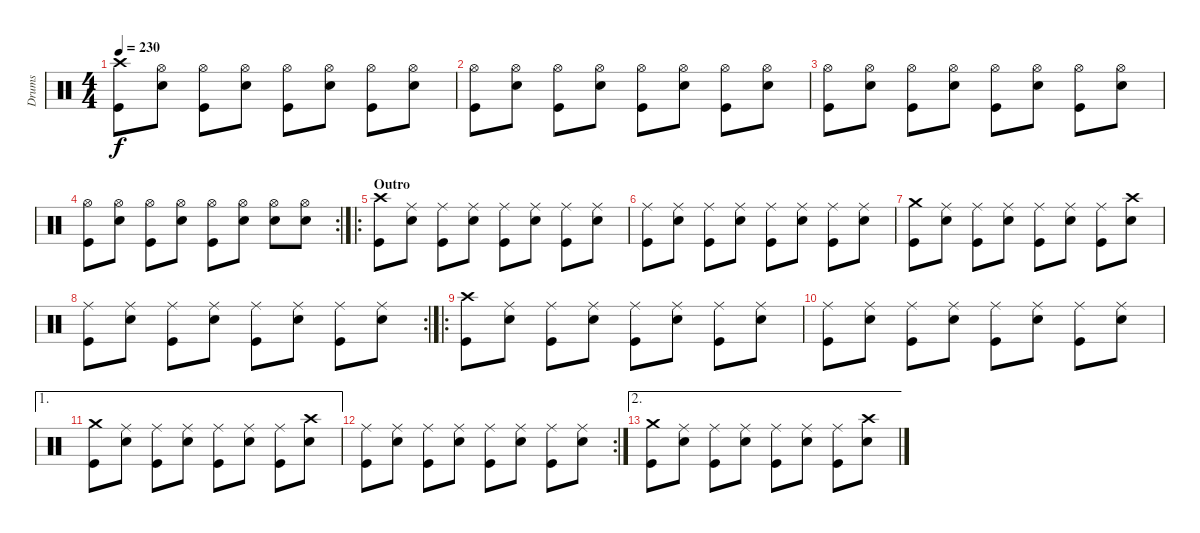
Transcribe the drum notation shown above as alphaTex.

\track ("Drums" "Drums") {instrument percussion}
\staff {score}
\articulation defaults
\ts (4 4)
\tempo 230
\clef neutral
\ks c
("Crash high (hit)" "Kick (hit)").8{dy f} ("Hi-Hat (open)" "Electric Snare (hit)").8 ("Hi-Hat (open)" "Kick (hit)").8 ("Hi-Hat (open)" "Electric Snare (hit)").8 ("Hi-Hat (open)" "Kick (hit)").8 ("Hi-Hat (open)" "Electric Snare (hit)").8 ("Hi-Hat (open)" "Kick (hit)").8 ("Hi-Hat (open)" "Electric Snare (hit)").8 |
("Hi-Hat (open)" "Kick (hit)").8 ("Hi-Hat (open)" "Electric Snare (hit)").8 ("Hi-Hat (open)" "Kick (hit)").8 ("Hi-Hat (open)" "Electric Snare (hit)").8 ("Hi-Hat (open)" "Kick (hit)").8 ("Hi-Hat (open)" "Electric Snare (hit)").8 ("Hi-Hat (open)" "Kick (hit)").8 ("Hi-Hat (open)" "Electric Snare (hit)").8 |
("Hi-Hat (open)" "Kick (hit)").8 ("Hi-Hat (open)" "Electric Snare (hit)").8 ("Hi-Hat (open)" "Kick (hit)").8 ("Hi-Hat (open)" "Electric Snare (hit)").8 ("Hi-Hat (open)" "Kick (hit)").8 ("Hi-Hat (open)" "Electric Snare (hit)").8 ("Hi-Hat (open)" "Kick (hit)").8 ("Hi-Hat (open)" "Electric Snare (hit)").8 |
\rc 2
("Hi-Hat (open)" "Kick (hit)").8 ("Hi-Hat (open)" "Electric Snare (hit)").8 ("Hi-Hat (open)" "Kick (hit)").8 ("Hi-Hat (open)" "Electric Snare (hit)").8 ("Hi-Hat (open)" "Kick (hit)").8 ("Hi-Hat (open)" "Electric Snare (hit)").8 ("Hi-Hat (open)" "Electric Snare (hit)").8 ("Hi-Hat (open)" "Electric Snare (hit)").8 |
\ro
\section ("" "Outro")
("Crash high (hit)" "Kick (hit)").8 ("Ride (middle)" "Electric Snare (hit)").8 ("Ride (middle)" "Kick (hit)").8 ("Ride (middle)" "Electric Snare (hit)").8 ("Ride (middle)" "Kick (hit)").8 ("Ride (middle)" "Electric Snare (hit)").8 ("Ride (middle)" "Kick (hit)").8 ("Ride (middle)" "Electric Snare (hit)").8 |
("Ride (middle)" "Kick (hit)").8 ("Ride (middle)" "Electric Snare (hit)").8 ("Ride (middle)" "Kick (hit)").8 ("Ride (middle)" "Electric Snare (hit)").8 ("Ride (middle)" "Kick (hit)").8 ("Ride (middle)" "Electric Snare (hit)").8 ("Ride (middle)" "Kick (hit)").8 ("Ride (middle)" "Electric Snare (hit)").8 |
("Crash medium (hit)" "Kick (hit)").8 ("Ride (middle)" "Electric Snare (hit)").8 ("Ride (middle)" "Kick (hit)").8 ("Ride (middle)" "Electric Snare (hit)").8 ("Ride (middle)" "Kick (hit)").8 ("Ride (middle)" "Electric Snare (hit)").8 ("Ride (middle)" "Kick (hit)").8 ("Crash high (hit)" "Electric Snare (hit)").8 |
\rc 2
("Ride (middle)" "Kick (hit)").8 ("Ride (middle)" "Electric Snare (hit)").8 ("Ride (middle)" "Kick (hit)").8 ("Ride (middle)" "Electric Snare (hit)").8 ("Ride (middle)" "Kick (hit)").8 ("Ride (middle)" "Electric Snare (hit)").8 ("Ride (middle)" "Kick (hit)").8 ("Ride (middle)" "Electric Snare (hit)").8 |
\ro
("Crash high (hit)" "Kick (hit)").8 ("Ride (middle)" "Electric Snare (hit)").8 ("Ride (middle)" "Kick (hit)").8 ("Ride (middle)" "Electric Snare (hit)").8 ("Ride (middle)" "Kick (hit)").8 ("Ride (middle)" "Electric Snare (hit)").8 ("Ride (middle)" "Kick (hit)").8 ("Ride (middle)" "Electric Snare (hit)").8 |
("Ride (middle)" "Kick (hit)").8 ("Ride (middle)" "Electric Snare (hit)").8 ("Ride (middle)" "Kick (hit)").8 ("Ride (middle)" "Electric Snare (hit)").8 ("Ride (middle)" "Kick (hit)").8 ("Ride (middle)" "Electric Snare (hit)").8 ("Ride (middle)" "Kick (hit)").8 ("Ride (middle)" "Electric Snare (hit)").8 |
\ae 1
("Crash medium (hit)" "Kick (hit)").8 ("Ride (middle)" "Electric Snare (hit)").8 ("Ride (middle)" "Kick (hit)").8 ("Ride (middle)" "Electric Snare (hit)").8 ("Ride (middle)" "Kick (hit)").8 ("Ride (middle)" "Electric Snare (hit)").8 ("Ride (middle)" "Kick (hit)").8 ("Crash high (hit)" "Electric Snare (hit)").8 |
\rc 2
("Ride (middle)" "Kick (hit)").8 ("Ride (middle)" "Electric Snare (hit)").8 ("Ride (middle)" "Kick (hit)").8 ("Ride (middle)" "Electric Snare (hit)").8 ("Ride (middle)" "Kick (hit)").8 ("Ride (middle)" "Electric Snare (hit)").8 ("Ride (middle)" "Kick (hit)").8 ("Ride (middle)" "Electric Snare (hit)").8 |
\ae 2
("Crash medium (hit)" "Kick (hit)").8 ("Ride (middle)" "Electric Snare (hit)").8 ("Ride (middle)" "Kick (hit)").8 ("Ride (middle)" "Electric Snare (hit)").8 ("Ride (middle)" "Kick (hit)").8 ("Ride (middle)" "Electric Snare (hit)").8 ("Ride (middle)" "Kick (hit)").8 ("Crash high (hit)" "Electric Snare (hit)").8
